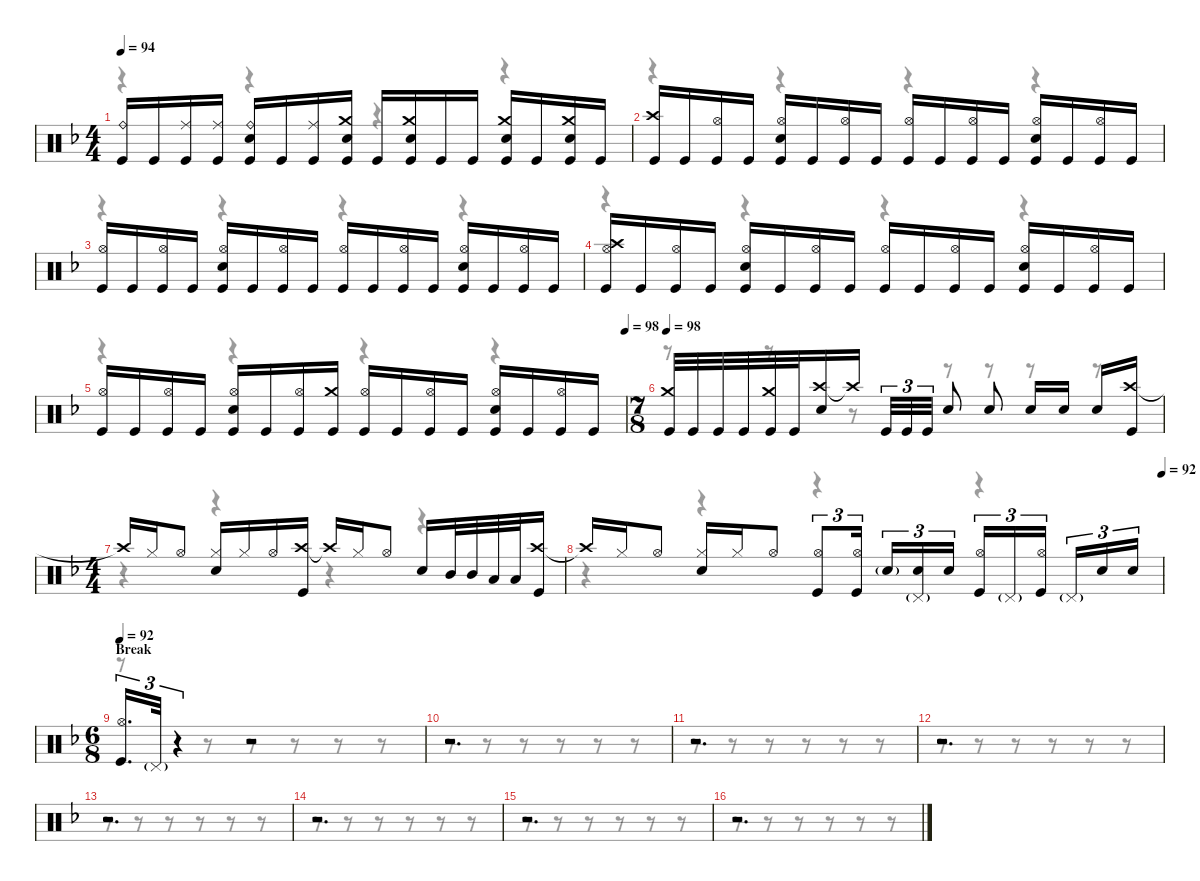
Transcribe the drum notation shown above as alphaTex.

\defaultSystemsLayout 4
\hideDynamics
\bracketExtendMode nobrackets
\singleTrackTrackNamePolicy hidden
\multiTrackTrackNamePolicy hidden
\otherSystemsTrackNameOrientation horizontal
\track ("M. Lopez" "drm.") {instrument percussion}
\staff {score}
\articulation defaults
\voice
\ts (4 4)
\tempo 94
\clef neutral
\ks dminor
("Ride (bell)"{acc forcenatural} "Kick (hit)"{acc forcenatural}).16{dy f beam Up} "Kick (hit)"{acc forcenatural}.16{beam Up} ("Ride (middle)"{acc forcenatural} "Kick (hit)"{acc forcenatural}).16{beam Up} ("Ride (middle)"{acc forcenatural} "Kick (hit)"{acc forcenatural}).16{beam Up} ("Ride (bell)"{acc forcenatural} "Snare (hit) 2"{acc forcenatural} "Kick (hit)"{acc forcenatural}).16{beam Up} "Kick (hit)"{acc forcenatural}.16{beam Up} ("Ride (middle)"{acc forcenatural} "Kick (hit)"{acc forcenatural}).16{beam Up} ("Crash medium (hit)"{acc forcenatural} "Snare (hit) 2"{acc forcenatural} "Kick (hit)"{acc forcenatural}).16{beam Up} "Kick (hit)"{acc forcenatural}.16{beam Up} ("Crash medium (hit)"{acc forcenatural} "Snare (hit) 2"{acc forcenatural} "Kick (hit)"{acc forcenatural}).16{beam Up} "Kick (hit)"{acc forcenatural}.16{beam Up} "Kick (hit)"{acc forcenatural}.16{beam Up} ("Crash medium (hit)"{acc forcenatural} "Snare (hit) 2"{acc forcenatural} "Kick (hit)"{acc forcenatural}).16{beam Up} "Kick (hit)"{acc forcenatural}.16{beam Up} ("Crash medium (hit)"{acc forcenatural} "Snare (hit) 2"{acc forcenatural} "Kick (hit)"{acc forcenatural}).16{beam Up} "Kick (hit)"{acc forcenatural}.16{beam Up} |
("Crash high (hit)"{acc forcenatural} "Kick (hit)"{acc forcenatural}).16{beam Up} "Kick (hit)"{acc forcenatural}.16{beam Up} ("Hi-Hat (open)"{acc forcenatural} "Kick (hit)"{acc forcenatural}).16{beam Up} "Kick (hit)"{acc forcenatural}.16{beam Up} ("Hi-Hat (open)"{acc forcenatural} "Snare (hit) 2"{acc forcenatural} "Kick (hit)"{acc forcenatural}).16{beam Up} "Kick (hit)"{acc forcenatural}.16{beam Up} ("Hi-Hat (open)"{acc forcenatural} "Kick (hit)"{acc forcenatural}).16{beam Up} "Kick (hit)"{acc forcenatural}.16{beam Up} ("Hi-Hat (open)"{acc forcenatural} "Kick (hit)"{acc forcenatural}).16{beam Up} "Kick (hit)"{acc forcenatural}.16{beam Up} ("Hi-Hat (open)"{acc forcenatural} "Kick (hit)"{acc forcenatural}).16{beam Up} "Kick (hit)"{acc forcenatural}.16{beam Up} ("Hi-Hat (open)"{acc forcenatural} "Snare (hit) 2"{acc forcenatural} "Kick (hit)"{acc forcenatural}).16{beam Up} "Kick (hit)"{acc forcenatural}.16{beam Up} ("Hi-Hat (open)"{acc forcenatural} "Kick (hit)"{acc forcenatural}).16{beam Up} "Kick (hit)"{acc forcenatural}.16{beam Up} |
("Hi-Hat (open)"{acc forcenatural} "Kick (hit)"{acc forcenatural}).16{beam Up} "Kick (hit)"{acc forcenatural}.16{beam Up} ("Hi-Hat (open)"{acc forcenatural} "Kick (hit)"{acc forcenatural}).16{beam Up} "Kick (hit)"{acc forcenatural}.16{beam Up} ("Hi-Hat (open)"{acc forcenatural} "Snare (hit) 2"{acc forcenatural} "Kick (hit)"{acc forcenatural}).16{beam Up} "Kick (hit)"{acc forcenatural}.16{beam Up} ("Hi-Hat (open)"{acc forcenatural} "Kick (hit)"{acc forcenatural}).16{beam Up} "Kick (hit)"{acc forcenatural}.16{beam Up} ("Hi-Hat (open)"{acc forcenatural} "Kick (hit)"{acc forcenatural}).16{beam Up} "Kick (hit)"{acc forcenatural}.16{beam Up} ("Hi-Hat (open)"{acc forcenatural} "Kick (hit)"{acc forcenatural}).16{beam Up} "Kick (hit)"{acc forcenatural}.16{beam Up} ("Hi-Hat (open)"{acc forcenatural} "Snare (hit) 2"{acc forcenatural} "Kick (hit)"{acc forcenatural}).16{beam Up} "Kick (hit)"{acc forcenatural}.16{beam Up} ("Hi-Hat (open)"{acc forcenatural} "Kick (hit)"{acc forcenatural}).16{beam Up} "Kick (hit)"{acc forcenatural}.16{beam Up} |
("Crash high (hit)"{acc forcenatural} "Hi-Hat (open)"{acc forcenatural} "Kick (hit)"{acc forcenatural}).16{dy mf beam Up} "Kick (hit)"{acc forcenatural}.16{dy f beam Up} ("Hi-Hat (open)"{acc forcenatural} "Kick (hit)"{acc forcenatural}).16{beam Up} "Kick (hit)"{acc forcenatural}.16{beam Up} ("Hi-Hat (open)"{acc forcenatural} "Snare (hit) 2"{acc forcenatural} "Kick (hit)"{acc forcenatural}).16{beam Up} "Kick (hit)"{acc forcenatural}.16{beam Up} ("Hi-Hat (open)"{acc forcenatural} "Kick (hit)"{acc forcenatural}).16{beam Up} "Kick (hit)"{acc forcenatural}.16{beam Up} ("Hi-Hat (open)"{acc forcenatural} "Kick (hit)"{acc forcenatural}).16{beam Up} "Kick (hit)"{acc forcenatural}.16{beam Up} ("Hi-Hat (open)"{acc forcenatural} "Kick (hit)"{acc forcenatural}).16{beam Up} "Kick (hit)"{acc forcenatural}.16{beam Up} ("Hi-Hat (open)"{acc forcenatural} "Snare (hit) 2"{acc forcenatural} "Kick (hit)"{acc forcenatural}).16{beam Up} "Kick (hit)"{acc forcenatural}.16{beam Up} ("Hi-Hat (open)"{acc forcenatural} "Kick (hit)"{acc forcenatural}).16{beam Up} "Kick (hit)"{acc forcenatural}.16{beam Up} |
\tempo (98 1)
("Hi-Hat (open)"{acc forcenatural} "Kick (hit)"{acc forcenatural}).16{beam Up} "Kick (hit)"{acc forcenatural}.16{beam Up} ("Hi-Hat (open)"{acc forcenatural} "Kick (hit)"{acc forcenatural}).16{beam Up} "Kick (hit)"{acc forcenatural}.16{beam Up} ("Hi-Hat (open)"{acc forcenatural} "Snare (hit) 2"{acc forcenatural} "Kick (hit)"{acc forcenatural}).16{beam Up} "Kick (hit)"{acc forcenatural}.16{beam Up} ("Hi-Hat (open)"{acc forcenatural} "Kick (hit)"{acc forcenatural}).16{beam Up} ("Crash medium (hit)"{acc forcenatural} "Kick (hit)"{acc forcenatural}).16{dy mp beam Up} ("Hi-Hat (open)"{acc forcenatural} "Kick (hit)"{acc forcenatural}).16{dy f beam Up} "Kick (hit)"{acc forcenatural}.16{beam Up} ("Hi-Hat (open)"{acc forcenatural} "Kick (hit)"{acc forcenatural}).16{beam Up} "Kick (hit)"{acc forcenatural}.16{beam Up} ("Hi-Hat (open)"{acc forcenatural} "Snare (hit) 2"{acc forcenatural} "Kick (hit)"{acc forcenatural}).16{beam Up} "Kick (hit)"{acc forcenatural}.16{beam Up} ("Hi-Hat (open)"{acc forcenatural} "Kick (hit)"{acc forcenatural}).16{beam Up} "Kick (hit)"{acc forcenatural}.16{beam Up} |
\ts (7 8)
\beaming (8 4 1 1 1)
\tempo 98
("Crash medium (hit)"{acc forcenatural} "Kick (hit)"{acc forcenatural}).32{beam Up} "Kick (hit)"{acc forcenatural}.32{beam Up} "Kick (hit)"{acc forcenatural}.32{beam Up} "Kick (hit)"{acc forcenatural}.32{beam Up} ("Crash medium (hit)"{acc forcenatural} "Kick (hit)"{acc forcenatural}).32{beam Up} "Kick (hit)"{acc forcenatural}.32{beam Up} ("Crash high (hit)"{acc forcenatural} "Snare (hit) 2"{acc forcenatural}).16{beam Up} "Crash high (hit)"{t acc forcenatural}.16{beam Up} "Kick (hit)"{acc forcenatural}.32{tu (3 2) beam Up} "Kick (hit)"{acc forcenatural}.32{tu (3 2) beam Up} "Kick (hit)"{acc forcenatural}.32{tu (3 2) beam Up} "Snare (hit) 2"{acc forcenatural}.8{beam Up} "Snare (hit) 2"{acc forcenatural}.8{beam Up} "Snare (hit) 2"{acc forcenatural}.16{beam Up} "Snare (hit) 2"{acc forcenatural}.16{beam Up} "Snare (hit) 2"{acc forcenatural}.16{beam Up} ("Crash high (hit)"{acc forcenatural} "Kick (hit)"{acc forcenatural}).16{beam Up} |
\ts (4 4)
\beaming (8 2 2 2 2)
"Crash high (hit)"{t acc forcenatural}.16{beam Up} "Hi-Hat (closed)"{acc forcenatural}.16{beam Up} "Hi-Hat (open)"{acc forcenatural}.8{beam Up} ("Hi-Hat (closed)"{acc forcenatural} "Snare (hit) 2"{acc forcenatural}).16{beam Up} "Hi-Hat (closed)"{acc forcenatural}.16{beam Up} "Hi-Hat (open)"{acc forcenatural}.16{beam Up} ("Crash high (hit)"{acc forcenatural} "Kick (hit)"{acc forcenatural}).16{beam Up} "Crash high (hit)"{t acc forcenatural}.16{beam Up} "Hi-Hat (closed)"{acc forcenatural}.16{beam Up} "Hi-Hat (open)"{acc forcenatural}.8{beam Up} "Snare (hit) 2"{acc forcenatural}.16{beam Up} "Mid Tom (hit)"{acc forcenatural}.32{beam Up} "Mid Tom (hit)"{acc forcenatural}.32{beam Up} "Low Tom (hit)"{acc forcenatural}.32{beam Up} "Low Tom (hit)"{acc forcenatural}.32{beam Up} ("Crash high (hit)"{acc forcenatural} "Kick (hit)"{acc forcenatural}).16{beam Up} |
\tempo (92 1)
"Crash high (hit)"{t acc forcenatural}.16{beam Up} "Hi-Hat (closed)"{acc forcenatural}.16{beam Up} "Hi-Hat (open)"{acc forcenatural}.8{beam Up} ("Hi-Hat (closed)"{acc forcenatural} "Snare (hit) 2"{acc forcenatural}).16{beam Up} "Hi-Hat (closed)"{acc forcenatural}.16{beam Up} "Hi-Hat (open)"{acc forcenatural}.8{beam Up} ("Hi-Hat (open)"{acc forcenatural} "Kick (hit)"{acc forcenatural}).8{tu (3 2) beam Up} ("Hi-Hat (open)"{acc forcenatural} "Kick (hit)"{acc forcenatural}).16{tu (3 2) beam Up} "Snare (hit) 2"{g acc forcenatural}.16{tu (3 2) dy mf beam Up} ("Pedal Hi-Hat (hit)"{g acc forcenatural} "Snare (hit) 2"{acc forcenatural}).16{tu (3 2) dy f beam Up} "Snare (hit) 2"{acc forcenatural}.16{tu (3 2) beam Up} ("Hi-Hat (open)"{acc forcenatural} "Kick (hit)"{acc forcenatural}).16{tu (3 2) beam Up} "Pedal Hi-Hat (hit)"{g acc forcenatural}.16{tu (3 2) dy mf beam Up} ("Hi-Hat (open)"{acc forcenatural} "Kick (hit)"{acc forcenatural}).16{tu (3 2) dy f beam Up} "Pedal Hi-Hat (hit)"{g acc forcenatural}.16{tu (3 2) dy mf beam Up} "Snare (hit) 2"{acc forcenatural}.16{tu (3 2) dy f beam Up} "Snare (hit) 2"{acc forcenatural}.16{tu (3 2) beam Up} |
\ts (6 8)
\beaming (8 3 1 1 1)
\section ("" "Break")
\tempo 92
("Hi-Hat (open)"{acc forcenatural} "Kick (hit)"{acc forcenatural}).16{d tu (3 2) beam Up} "Pedal Hi-Hat (hit)"{g acc forcenatural}.32{tu (3 2) dy mf beam Up} r.4{tu (3 2) beam Up} r.2{beam Up} |
r.2{d beam Up} |
r.2{d beam Up} |
r.2{d beam Up} |
r.2{d beam Up} |
r.2{d beam Up} |
r.2{d beam Up} |
r.2{d beam Up}
\voice
\clef neutral
\ottava regular
\simile none
\ks dminor
r.4{dy mf beam Down} r.4{beam Down} r.4{beam Down} r.4{beam Down} |
r.4{beam Down} r.4{beam Down} r.4{beam Down} r.4{beam Down} |
r.4{beam Down} r.4{beam Down} r.4{beam Down} r.4{beam Down} |
r.4{beam Down} r.4{beam Down} r.4{beam Down} r.4{beam Down} |
r.4{beam Down} r.4{beam Down} r.4{beam Down} r.4{beam Down} |
r.8{beam Down} r.8{beam Down} r.8{beam Down} r.8{beam Down} r.8{beam Down} r.8{beam Down} r.8{beam Down} |
r.4{beam Down} r.4{beam Down} r.4{beam Down} r.4{beam Down} |
r.4{beam Down} r.4{beam Down} r.4{beam Down} r.4{beam Down} |
r.8{beam Down} r.8{beam Down} r.8{beam Down} r.8{beam Down} r.8{beam Down} r.8{beam Down} |
r.8{beam Down} r.8{beam Down} r.8{beam Down} r.8{beam Down} r.8{beam Down} r.8{beam Down} |
r.8{beam Down} r.8{beam Down} r.8{beam Down} r.8{beam Down} r.8{beam Down} r.8{beam Down} |
r.8{beam Down} r.8{beam Down} r.8{beam Down} r.8{beam Down} r.8{beam Down} r.8{beam Down} |
r.8{beam Down} r.8{beam Down} r.8{beam Down} r.8{beam Down} r.8{beam Down} r.8{beam Down} |
r.8{beam Down} r.8{beam Down} r.8{beam Down} r.8{beam Down} r.8{beam Down} r.8{beam Down} |
r.8{beam Down} r.8{beam Down} r.8{beam Down} r.8{beam Down} r.8{beam Down} r.8{beam Down} |
r.8{beam Down} r.8{beam Down} r.8{beam Down} r.8{beam Down} r.8{beam Down} r.8{beam Down}
